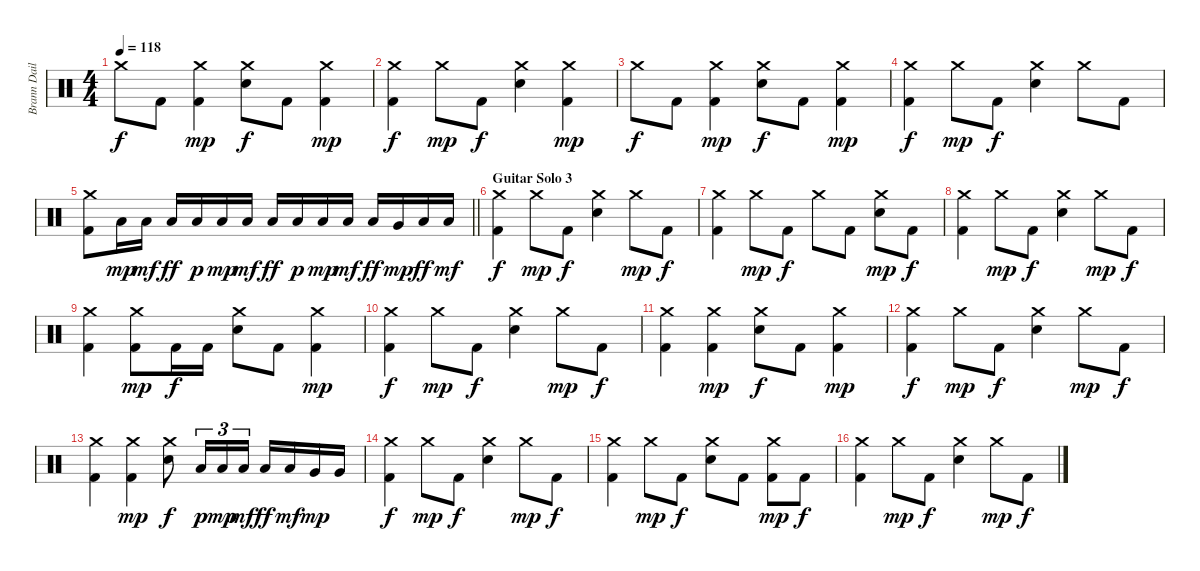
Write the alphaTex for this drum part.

\track ("Brann Dailor - Drums" "Brann Dail") {instrument percussion}
\staff {score}
\articulation defaults
\ts (4 4)
\tempo 118
\clef neutral
\ks c "Crash medium (hit)".8{dy f} "Kick (hit) 2".8
("Crash medium (hit)" "Kick (hit) 2").4{dy mp} ("Crash medium (hit)" "Electric Snare (hit)").8{dy f} "Kick (hit) 2".8 ("Crash medium (hit)" "Kick (hit) 2").4{dy mp} |
("Crash medium (hit)" "Kick (hit) 2").4{dy f} "Crash medium (hit)".8{dy mp} "Kick (hit) 2".8{dy f} ("Crash medium (hit)" "Electric Snare (hit)").4 ("Crash medium (hit)" "Kick (hit) 2").4{dy mp} |
"Crash medium (hit)".8{dy f} "Kick (hit) 2".8 ("Crash medium (hit)" "Kick (hit) 2").4{dy mp} ("Crash medium (hit)" "Electric Snare (hit)").8{dy f} "Kick (hit) 2".8 ("Crash medium (hit)" "Kick (hit) 2").4{dy mp} |
("Crash medium (hit)" "Kick (hit) 2").4{dy f} "Crash medium (hit)".8{dy mp} "Kick (hit) 2".8{dy f} ("Crash medium (hit)" "Electric Snare (hit)").4 "Crash medium (hit)".8 "Kick (hit) 2".8 |
\barLineRight lightlight
("Crash medium (hit)" "Kick (hit) 2").8 "Low Tom (hit)".16{dy mp} "Low Tom (hit)".16{dy mf} "Low Tom (hit)".16{dy ff} "Low Tom (hit)".16{dy p} "Low Tom (hit)".16{dy mp} "Low Tom (hit)".16{dy mf} "Low Tom (hit)".16{dy ff} "Low Tom (hit)".16{dy p} "Low Tom (hit)".16{dy mp} "Low Tom (hit)".16{dy mf} "Low Tom (hit)".16{dy ff} "Very Low Tom (hit)".16{dy mp} "Low Floor Tom (hit)".16{dy ff} "Low Floor Tom (hit)".16{dy mf} |
\section ("" "Guitar Solo 3")
("Crash medium (hit)" "Kick (hit) 2").4{dy f} "Crash medium (hit)".8{dy mp} "Kick (hit) 2".8{dy f} ("Crash medium (hit)" "Electric Snare (hit)").4 "Crash medium (hit)".8{dy mp} "Kick (hit) 2".8{dy f} |
("Crash medium (hit)" "Kick (hit) 2").4 "Crash medium (hit)".8{dy mp} "Kick (hit) 2".8{dy f} "Crash medium (hit)".8 "Kick (hit) 2".8 ("Crash medium (hit)" "Electric Snare (hit)").8{dy mp} "Kick (hit) 2".8{dy f} |
("Crash medium (hit)" "Kick (hit) 2").4 "Crash medium (hit)".8{dy mp} "Kick (hit) 2".8{dy f} ("Crash medium (hit)" "Electric Snare (hit)").4 "Crash medium (hit)".8{dy mp} "Kick (hit) 2".8{dy f} |
("Crash medium (hit)" "Kick (hit) 2").4 ("Crash medium (hit)" "Kick (hit) 2").8{dy mp} "Kick (hit) 2".16{dy f} "Kick (hit) 2".16 ("Crash medium (hit)" "Electric Snare (hit)").8 "Kick (hit) 2".8 ("Crash medium (hit)" "Kick (hit) 2").4{dy mp} |
("Crash medium (hit)" "Kick (hit) 2").4{dy f} "Crash medium (hit)".8{dy mp} "Kick (hit) 2".8{dy f} ("Crash medium (hit)" "Electric Snare (hit)").4 "Crash medium (hit)".8{dy mp} "Kick (hit) 2".8{dy f} |
("Crash medium (hit)" "Kick (hit) 2").4 ("Crash medium (hit)" "Kick (hit) 2").4{dy mp} ("Crash medium (hit)" "Electric Snare (hit)").8{dy f} "Kick (hit) 2".8 ("Crash medium (hit)" "Kick (hit) 2").4{dy mp} |
("Crash medium (hit)" "Kick (hit) 2").4{dy f} "Crash medium (hit)".8{dy mp} "Kick (hit) 2".8{dy f} ("Crash medium (hit)" "Electric Snare (hit)").4 "Crash medium (hit)".8{dy mp} "Kick (hit) 2".8{dy f} |
("Crash medium (hit)" "Kick (hit) 2").4 ("Crash medium (hit)" "Kick (hit) 2").4{dy mp} ("Crash medium (hit)" "Electric Snare (hit)").8{dy f} "Low Tom (hit)".16{tu (3 2) dy p} "Low Tom (hit)".16{tu (3 2) dy mp} "Low Tom (hit)".16{tu (3 2) dy mf} "Low Tom (hit)".16{dy ff} "Low Tom (hit)".16{dy mf} "Very Low Tom (hit)".16{dy mp} "Very Low Tom (hit)".16 |
("Crash medium (hit)" "Kick (hit) 2").4{dy f} "Crash medium (hit)".8{dy mp} "Kick (hit) 2".8{dy f} ("Crash medium (hit)" "Electric Snare (hit)").4 "Crash medium (hit)".8{dy mp} "Kick (hit) 2".8{dy f} |
("Crash medium (hit)" "Kick (hit) 2").4 "Crash medium (hit)".8{dy mp} "Kick (hit) 2".8{dy f} ("Crash medium (hit)" "Electric Snare (hit)").8 "Kick (hit) 2".8 ("Crash medium (hit)" "Kick (hit) 2").8{dy mp} "Kick (hit) 2".8{dy f} |
("Crash medium (hit)" "Kick (hit) 2").4 "Crash medium (hit)".8{dy mp} "Kick (hit) 2".8{dy f} ("Crash medium (hit)" "Electric Snare (hit)").4 "Crash medium (hit)".8{dy mp} "Kick (hit) 2".8{dy f}
